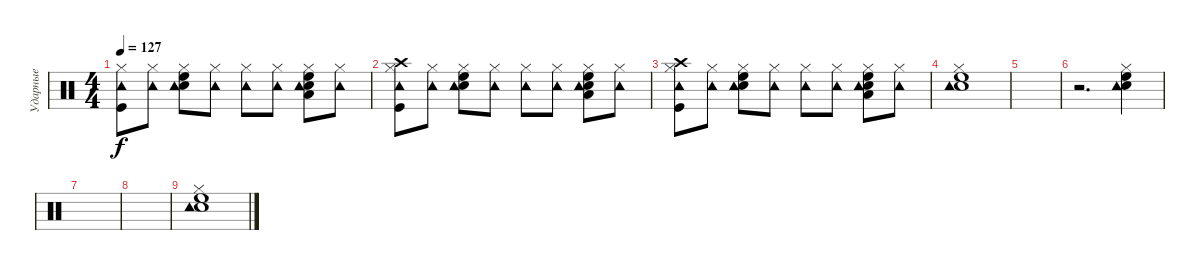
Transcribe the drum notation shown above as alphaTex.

\track ("Ударные" "Ударные") {instrument percussion}
\staff {score}
\articulation defaults
\ts (4 4)
\tempo 127
\clef neutral
\ks c
("Hi-Hat (closed)" "Kick (hit)" "Tambourine (hit)").8{dy f} ("Hi-Hat (closed)" "Tambourine (hit)").8 ("Hi-Hat (closed)" "High Floor Tom (hit)" "Snare (hit) 2" "Tambourine (hit)").8 ("Hi-Hat (closed)" "Tambourine (hit)").8 ("Hi-Hat (closed)" "Tambourine (hit)").8 ("Hi-Hat (closed)" "Tambourine (hit)").8 ("Hi-Hat (closed)" "High Floor Tom (hit)" "Snare (hit) 2" "Low Floor Tom (hit)" "Tambourine (hit)").8 ("Hi-Hat (closed)" "Tambourine (hit)").8 |
("Hi-Hat (closed)" "Crash high (hit)" "Kick (hit)" "Tambourine (hit)").8 ("Hi-Hat (closed)" "Tambourine (hit)").8 ("Hi-Hat (closed)" "High Floor Tom (hit)" "Snare (hit) 2" "Tambourine (hit)").8 ("Hi-Hat (closed)" "Tambourine (hit)").8 ("Hi-Hat (closed)" "Tambourine (hit)").8 ("Hi-Hat (closed)" "Tambourine (hit)").8 ("Hi-Hat (closed)" "High Floor Tom (hit)" "Snare (hit) 2" "Low Floor Tom (hit)" "Tambourine (hit)").8 ("Hi-Hat (closed)" "Tambourine (hit)").8 |
("Hi-Hat (closed)" "Crash high (hit)" "Kick (hit)" "Tambourine (hit)").8 ("Hi-Hat (closed)" "Tambourine (hit)").8 ("Hi-Hat (closed)" "High Floor Tom (hit)" "Snare (hit) 2" "Tambourine (hit)").8 ("Hi-Hat (closed)" "Tambourine (hit)").8 ("Hi-Hat (closed)" "Tambourine (hit)").8 ("Hi-Hat (closed)" "Tambourine (hit)").8 ("Hi-Hat (closed)" "High Floor Tom (hit)" "Snare (hit) 2" "Low Floor Tom (hit)" "Tambourine (hit)").8 ("Hi-Hat (closed)" "Tambourine (hit)").8 |
("Hi-Hat (closed)" "High Floor Tom (hit)" "Snare (hit) 2" "Tambourine (hit)").1 |
|
r.2{d} ("Hi-Hat (closed)" "High Floor Tom (hit)" "Snare (hit) 2" "Tambourine (hit)").4 |
|
|
("Hi-Hat (closed)" "High Floor Tom (hit)" "Snare (hit) 2" "Tambourine (hit)").1
